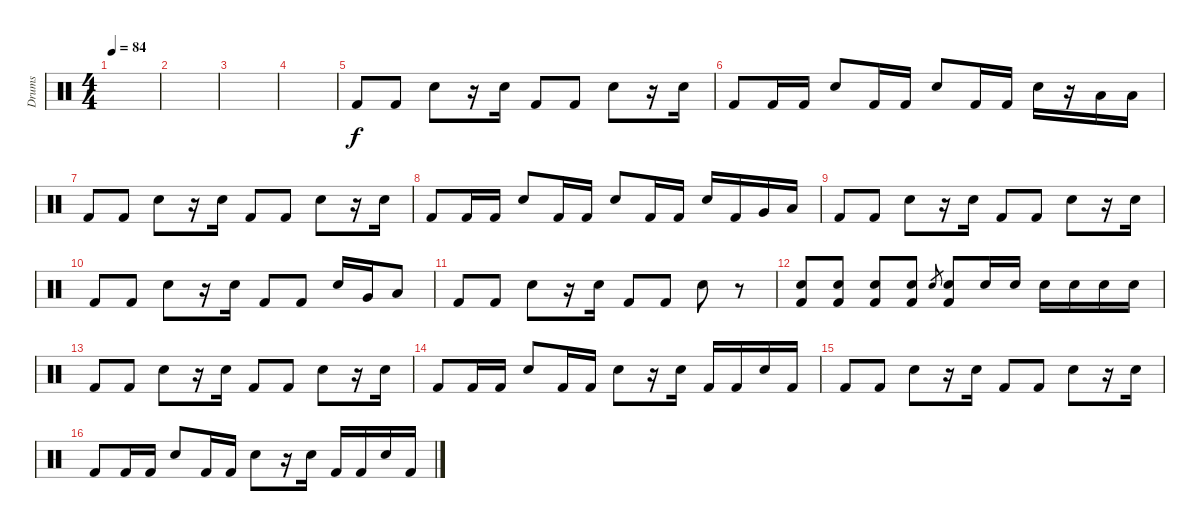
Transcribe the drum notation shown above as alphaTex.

\track ("Drums" "Drums") {instrument percussion}
\staff {score}
\articulation defaults
\ts (4 4)
\tempo 84
\clef neutral
\ks c
|
|
|
|
"Kick (hit) 2".8 "Kick (hit) 2".8 "Snare (hit) 2".8 r.16 "Snare (hit) 2".16 "Kick (hit) 2".8 "Kick (hit) 2".8 "Snare (hit) 2".8 r.16 "Snare (hit) 2".16 |
"Kick (hit) 2".8 "Kick (hit) 2".16 "Kick (hit) 2".16 "Snare (hit) 2".8 "Kick (hit) 2".16 "Kick (hit) 2".16 "Snare (hit) 2".8 "Kick (hit) 2".16 "Kick (hit) 2".16 "Snare (hit) 2".16 r.16 "Low Tom (hit)".16 "Low Floor Tom (hit)".16 |
"Kick (hit) 2".8 "Kick (hit) 2".8 "Snare (hit) 2".8 r.16 "Snare (hit) 2".16 "Kick (hit) 2".8 "Kick (hit) 2".8 "Snare (hit) 2".8 r.16 "Snare (hit) 2".16 |
"Kick (hit) 2".8 "Kick (hit) 2".16 "Kick (hit) 2".16 "Snare (hit) 2".8 "Kick (hit) 2".16 "Kick (hit) 2".16 "Snare (hit) 2".8 "Kick (hit) 2".16 "Kick (hit) 2".16 "Snare (hit) 2".16 "Kick (hit) 2".16 "Very Low Tom (hit)".16 "Low Floor Tom (hit)".16 |
"Kick (hit) 2".8 "Kick (hit) 2".8 "Snare (hit) 2".8 r.16 "Snare (hit) 2".16 "Kick (hit) 2".8 "Kick (hit) 2".8 "Snare (hit) 2".8 r.16 "Snare (hit) 2".16 |
"Kick (hit) 2".8 "Kick (hit) 2".8 "Snare (hit) 2".8 r.16 "Snare (hit) 2".16 "Kick (hit) 2".8 "Kick (hit) 2".8 "Snare (hit) 2".16 "Very Low Tom (hit)".16 "Low Floor Tom (hit)".8 |
"Kick (hit) 2".8 "Kick (hit) 2".8 "Snare (hit) 2".8 r.16 "Snare (hit) 2".16 "Kick (hit) 2".8 "Kick (hit) 2".8 "Snare (hit) 2".8 r.8 |
("Snare (hit) 2" "Kick (hit) 2").8 ("Snare (hit) 2" "Kick (hit) 2").8 ("Snare (hit) 2" "Kick (hit) 2").8 ("Snare (hit) 2" "Kick (hit) 2").8 "Snare (hit) 2".8{gr} ("Snare (hit) 2" "Kick (hit) 2").8 "Snare (hit) 2".16 "Snare (hit) 2".16 "Snare (hit) 2".16 "Snare (hit) 2".16 "Snare (hit) 2".16 "Snare (hit) 2".16 |
"Kick (hit) 2".8 "Kick (hit) 2".8 "Snare (hit) 2".8 r.16 "Snare (hit) 2".16 "Kick (hit) 2".8 "Kick (hit) 2".8 "Snare (hit) 2".8 r.16 "Snare (hit) 2".16 |
"Kick (hit) 2".8 "Kick (hit) 2".16 "Kick (hit) 2".16 "Snare (hit) 2".8 "Kick (hit) 2".16 "Kick (hit) 2".16 "Snare (hit) 2".8 r.16 "Snare (hit) 2".16 "Kick (hit) 2".16 "Kick (hit) 2".16 "Snare (hit) 2".16 "Kick (hit) 2".16 |
"Kick (hit) 2".8 "Kick (hit) 2".8 "Snare (hit) 2".8 r.16 "Snare (hit) 2".16 "Kick (hit) 2".8 "Kick (hit) 2".8 "Snare (hit) 2".8 r.16 "Snare (hit) 2".16 |
"Kick (hit) 2".8 "Kick (hit) 2".16 "Kick (hit) 2".16 "Snare (hit) 2".8 "Kick (hit) 2".16 "Kick (hit) 2".16 "Snare (hit) 2".8 r.16 "Snare (hit) 2".16 "Kick (hit) 2".16 "Kick (hit) 2".16 "Snare (hit) 2".16 "Kick (hit) 2".16
